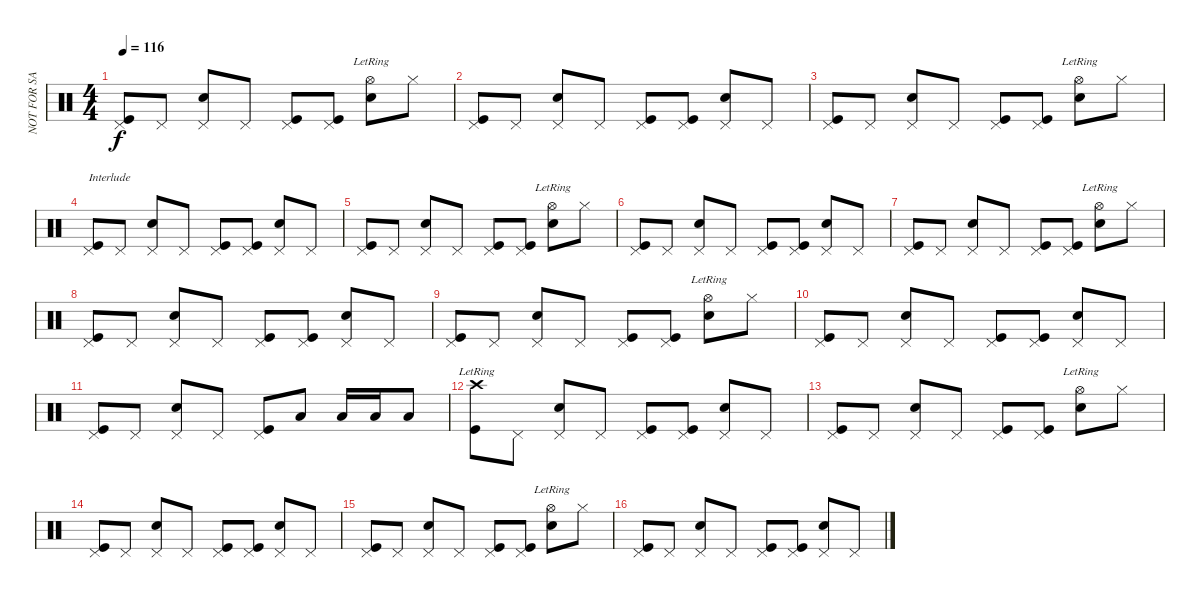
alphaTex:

\track ("NOT FOR SALE OR PROFIT" "NOT FOR SA") {instrument percussion}
\staff {score}
\articulation defaults
\ts (4 4)
\tempo 116
\clef neutral
\ks c
("Pedal Hi-Hat (hit)" "Kick (hit)").8{dy f} "Pedal Hi-Hat (hit)".8 ("Pedal Hi-Hat (hit)" "Snare (hit) 2").8 "Pedal Hi-Hat (hit)".8 ("Pedal Hi-Hat (hit)" "Kick (hit)").8 ("Pedal Hi-Hat (hit)" "Kick (hit)").8 ("Hi-Hat (open)"{lr} "Snare (hit) 2").8 "Hi-Hat (closed)".8 |
("Pedal Hi-Hat (hit)" "Kick (hit)").8 "Pedal Hi-Hat (hit)".8 ("Pedal Hi-Hat (hit)" "Snare (hit) 2").8 "Pedal Hi-Hat (hit)".8 ("Pedal Hi-Hat (hit)" "Kick (hit)").8 ("Pedal Hi-Hat (hit)" "Kick (hit)").8 ("Pedal Hi-Hat (hit)" "Snare (hit) 2").8 "Pedal Hi-Hat (hit)".8 |
("Pedal Hi-Hat (hit)" "Kick (hit)").8 "Pedal Hi-Hat (hit)".8 ("Pedal Hi-Hat (hit)" "Snare (hit) 2").8 "Pedal Hi-Hat (hit)".8 ("Pedal Hi-Hat (hit)" "Kick (hit)").8 ("Pedal Hi-Hat (hit)" "Kick (hit)").8 ("Hi-Hat (open)"{lr} "Snare (hit) 2").8 "Hi-Hat (closed)".8 |
("Pedal Hi-Hat (hit)" "Kick (hit)").8{txt "Interlude"} "Pedal Hi-Hat (hit)".8 ("Pedal Hi-Hat (hit)" "Snare (hit) 2").8 "Pedal Hi-Hat (hit)".8 ("Pedal Hi-Hat (hit)" "Kick (hit)").8 ("Pedal Hi-Hat (hit)" "Kick (hit)").8 ("Pedal Hi-Hat (hit)" "Snare (hit) 2").8 "Pedal Hi-Hat (hit)".8 |
("Pedal Hi-Hat (hit)" "Kick (hit)").8 "Pedal Hi-Hat (hit)".8 ("Pedal Hi-Hat (hit)" "Snare (hit) 2").8 "Pedal Hi-Hat (hit)".8 ("Pedal Hi-Hat (hit)" "Kick (hit)").8 ("Pedal Hi-Hat (hit)" "Kick (hit)").8 ("Hi-Hat (open)"{lr} "Snare (hit) 2").8 "Hi-Hat (closed)".8 |
("Pedal Hi-Hat (hit)" "Kick (hit)").8 "Pedal Hi-Hat (hit)".8 ("Pedal Hi-Hat (hit)" "Snare (hit) 2").8 "Pedal Hi-Hat (hit)".8 ("Pedal Hi-Hat (hit)" "Kick (hit)").8 ("Pedal Hi-Hat (hit)" "Kick (hit)").8 ("Pedal Hi-Hat (hit)" "Snare (hit) 2").8 "Pedal Hi-Hat (hit)".8 |
("Pedal Hi-Hat (hit)" "Kick (hit)").8 "Pedal Hi-Hat (hit)".8 ("Pedal Hi-Hat (hit)" "Snare (hit) 2").8 "Pedal Hi-Hat (hit)".8 ("Pedal Hi-Hat (hit)" "Kick (hit)").8 ("Pedal Hi-Hat (hit)" "Kick (hit)").8 ("Hi-Hat (open)"{lr} "Snare (hit) 2").8 "Hi-Hat (closed)".8 |
("Pedal Hi-Hat (hit)" "Kick (hit)").8 "Pedal Hi-Hat (hit)".8 ("Pedal Hi-Hat (hit)" "Snare (hit) 2").8 "Pedal Hi-Hat (hit)".8 ("Pedal Hi-Hat (hit)" "Kick (hit)").8 ("Pedal Hi-Hat (hit)" "Kick (hit)").8 ("Pedal Hi-Hat (hit)" "Snare (hit) 2").8 "Pedal Hi-Hat (hit)".8 |
("Pedal Hi-Hat (hit)" "Kick (hit)").8 "Pedal Hi-Hat (hit)".8 ("Pedal Hi-Hat (hit)" "Snare (hit) 2").8 "Pedal Hi-Hat (hit)".8 ("Pedal Hi-Hat (hit)" "Kick (hit)").8 ("Pedal Hi-Hat (hit)" "Kick (hit)").8 ("Hi-Hat (open)"{lr} "Snare (hit) 2").8 "Hi-Hat (closed)".8 |
("Pedal Hi-Hat (hit)" "Kick (hit)").8 "Pedal Hi-Hat (hit)".8 ("Pedal Hi-Hat (hit)" "Snare (hit) 2").8 "Pedal Hi-Hat (hit)".8 ("Pedal Hi-Hat (hit)" "Kick (hit)").8 ("Pedal Hi-Hat (hit)" "Kick (hit)").8 ("Pedal Hi-Hat (hit)" "Snare (hit) 2").8 "Pedal Hi-Hat (hit)".8 |
("Pedal Hi-Hat (hit)" "Kick (hit)").8 "Pedal Hi-Hat (hit)".8 ("Pedal Hi-Hat (hit)" "Snare (hit) 2").8 "Pedal Hi-Hat (hit)".8 ("Pedal Hi-Hat (hit)" "Kick (hit)").8 "Low Tom (hit)".8 "Low Tom (hit)".16 "Low Tom (hit)".16 "Low Tom (hit)".8 |
("Crash high (hit)"{lr} "Kick (hit)").8 "Pedal Hi-Hat (hit)".8 ("Pedal Hi-Hat (hit)" "Snare (hit) 2").8 "Pedal Hi-Hat (hit)".8 ("Pedal Hi-Hat (hit)" "Kick (hit)").8 ("Pedal Hi-Hat (hit)" "Kick (hit)").8 ("Pedal Hi-Hat (hit)" "Snare (hit) 2").8 "Pedal Hi-Hat (hit)".8 |
("Pedal Hi-Hat (hit)" "Kick (hit)").8 "Pedal Hi-Hat (hit)".8 ("Pedal Hi-Hat (hit)" "Snare (hit) 2").8 "Pedal Hi-Hat (hit)".8 ("Pedal Hi-Hat (hit)" "Kick (hit)").8 ("Pedal Hi-Hat (hit)" "Kick (hit)").8 ("Hi-Hat (open)"{lr} "Snare (hit) 2").8 "Hi-Hat (closed)".8 |
("Pedal Hi-Hat (hit)" "Kick (hit)").8 "Pedal Hi-Hat (hit)".8 ("Pedal Hi-Hat (hit)" "Snare (hit) 2").8 "Pedal Hi-Hat (hit)".8 ("Pedal Hi-Hat (hit)" "Kick (hit)").8 ("Pedal Hi-Hat (hit)" "Kick (hit)").8 ("Pedal Hi-Hat (hit)" "Snare (hit) 2").8 "Pedal Hi-Hat (hit)".8 |
("Pedal Hi-Hat (hit)" "Kick (hit)").8 "Pedal Hi-Hat (hit)".8 ("Pedal Hi-Hat (hit)" "Snare (hit) 2").8 "Pedal Hi-Hat (hit)".8 ("Pedal Hi-Hat (hit)" "Kick (hit)").8 ("Pedal Hi-Hat (hit)" "Kick (hit)").8 ("Hi-Hat (open)"{lr} "Snare (hit) 2").8 "Hi-Hat (closed)".8 |
("Pedal Hi-Hat (hit)" "Kick (hit)").8 "Pedal Hi-Hat (hit)".8 ("Pedal Hi-Hat (hit)" "Snare (hit) 2").8 "Pedal Hi-Hat (hit)".8 ("Pedal Hi-Hat (hit)" "Kick (hit)").8 ("Pedal Hi-Hat (hit)" "Kick (hit)").8 ("Pedal Hi-Hat (hit)" "Snare (hit) 2").8 "Pedal Hi-Hat (hit)".8
